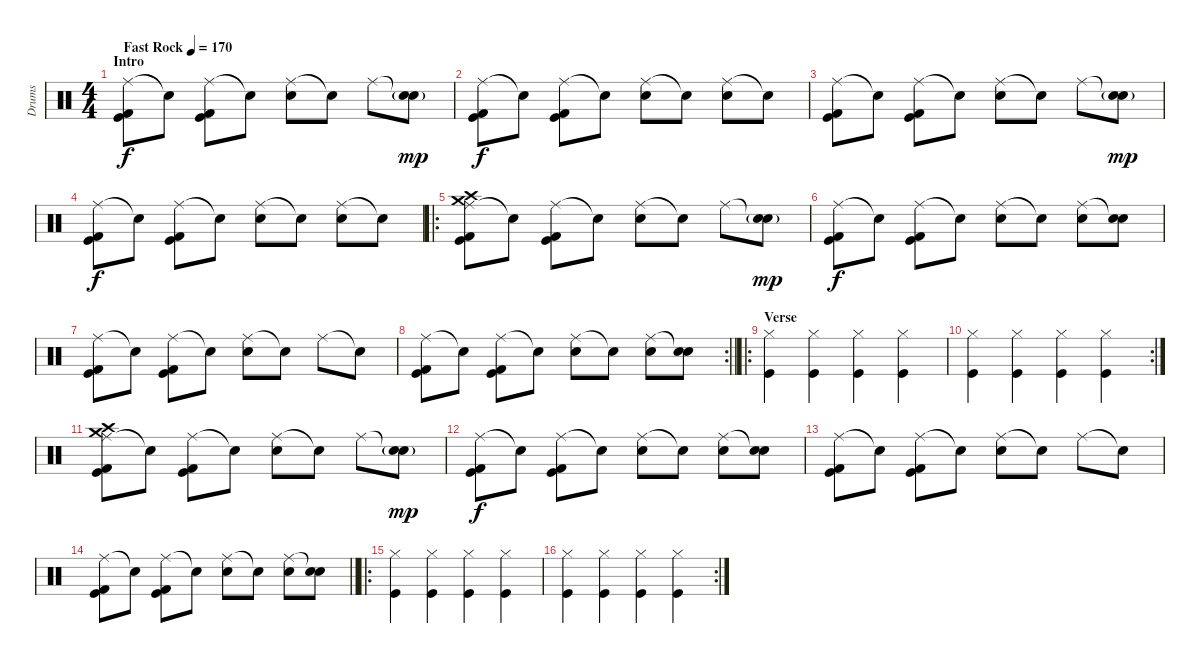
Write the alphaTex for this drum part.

\track ("Drums" "Drums") {instrument percussion}
\staff {score}
\articulation defaults
\ts (4 4)
\section ("" "Intro")
\tempo (170 "Fast Rock")
\clef neutral
\ks c
("Ride (middle)" "Kick (hit)" "Kick (hit) 2").8{dy f} "Snare (hit)"{t}.8 ("Ride (middle)" "Kick (hit)" "Kick (hit) 2").8 "Snare (hit)"{t}.8 ("Ride (middle)" "Electric Snare (hit)").8 "Snare (hit)"{t}.8 "Ride (middle)".8 ("Snare (hit)"{t} "Electric Snare (hit)"{g}).8{dy mp} |
("Ride (middle)" "Kick (hit)" "Kick (hit) 2").8{dy f} "Snare (hit)"{t}.8 ("Ride (middle)" "Kick (hit)" "Kick (hit) 2").8 "Snare (hit)"{t}.8 ("Ride (middle)" "Electric Snare (hit)").8 "Snare (hit)"{t}.8 ("Ride (middle)" "Electric Snare (hit)").8 "Snare (hit)"{t}.8 |
("Ride (middle)" "Kick (hit)" "Kick (hit) 2").8 "Snare (hit)"{t}.8 ("Ride (middle)" "Kick (hit)" "Kick (hit) 2").8 "Snare (hit)"{t}.8 ("Ride (middle)" "Electric Snare (hit)").8 "Snare (hit)"{t}.8 "Ride (middle)".8 ("Snare (hit)"{t} "Electric Snare (hit)"{g}).8{dy mp} |
("Ride (middle)" "Kick (hit)" "Kick (hit) 2").8{dy f} "Snare (hit)"{t}.8 ("Ride (middle)" "Kick (hit)" "Kick (hit) 2").8 "Snare (hit)"{t}.8 ("Ride (middle)" "Electric Snare (hit)").8 "Snare (hit)"{t}.8 ("Ride (middle)" "Electric Snare (hit)").8 "Snare (hit)"{t}.8 |
\ro
("Ride (middle)" "Crash high (hit)" "Crash medium (hit)" "Kick (hit)" "Kick (hit) 2").8 "Snare (hit)"{t}.8 ("Ride (middle)" "Kick (hit)" "Kick (hit) 2").8 "Snare (hit)"{t}.8 ("Ride (middle)" "Electric Snare (hit)").8 "Snare (hit)"{t}.8 "Ride (middle)".8 ("Snare (hit)"{t} "Electric Snare (hit)"{g}).8{dy mp} |
("Ride (middle)" "Kick (hit)" "Kick (hit) 2").8{dy f} "Snare (hit)"{t}.8 ("Ride (middle)" "Kick (hit)" "Kick (hit) 2").8 "Snare (hit)"{t}.8 ("Ride (middle)" "Electric Snare (hit)").8 "Snare (hit)"{t}.8 ("Ride (middle)" "Electric Snare (hit)").8 ("Snare (hit)"{t} "Electric Snare (hit)").8 |
("Ride (middle)" "Kick (hit)" "Kick (hit) 2").8 "Snare (hit)"{t}.8 ("Ride (middle)" "Kick (hit)" "Kick (hit) 2").8 "Snare (hit)"{t}.8 ("Ride (middle)" "Electric Snare (hit)").8 "Snare (hit)"{t}.8 "Ride (middle)".8 "Snare (hit)"{t}.8 |
\rc 2
\barLineRight lightlight
("Ride (middle)" "Kick (hit)" "Kick (hit) 2").8 "Snare (hit)"{t}.8 ("Ride (middle)" "Kick (hit)" "Kick (hit) 2").8 "Snare (hit)"{t}.8 ("Ride (middle)" "Electric Snare (hit)").8 "Snare (hit)"{t}.8 ("Ride (middle)" "Electric Snare (hit)").8 ("Snare (hit)"{t} "Electric Snare (hit)").8 |
\ro
\section ("" "Verse")
("Hi-Hat (closed)" "Kick (hit)").4 ("Hi-Hat (closed)" "Kick (hit)").4 ("Hi-Hat (closed)" "Kick (hit)").4 ("Hi-Hat (closed)" "Kick (hit)").4 |
\rc 2
("Hi-Hat (closed)" "Kick (hit)").4 ("Hi-Hat (closed)" "Kick (hit)").4 ("Hi-Hat (closed)" "Kick (hit)").4 ("Hi-Hat (closed)" "Kick (hit)").4 |
("Ride (middle)" "Crash high (hit)" "Crash medium (hit)" "Kick (hit)" "Kick (hit) 2").8 "Snare (hit)"{t}.8 ("Ride (middle)" "Kick (hit)" "Kick (hit) 2").8 "Snare (hit)"{t}.8 ("Ride (middle)" "Electric Snare (hit)").8 "Snare (hit)"{t}.8 "Ride (middle)".8 ("Snare (hit)"{t} "Electric Snare (hit)"{g}).8{dy mp} |
("Ride (middle)" "Kick (hit)" "Kick (hit) 2").8{dy f} "Snare (hit)"{t}.8 ("Ride (middle)" "Kick (hit)" "Kick (hit) 2").8 "Snare (hit)"{t}.8 ("Ride (middle)" "Electric Snare (hit)").8 "Snare (hit)"{t}.8 ("Ride (middle)" "Electric Snare (hit)").8 ("Snare (hit)"{t} "Electric Snare (hit)").8 |
("Ride (middle)" "Kick (hit)" "Kick (hit) 2").8 "Snare (hit)"{t}.8 ("Ride (middle)" "Kick (hit)" "Kick (hit) 2").8 "Snare (hit)"{t}.8 ("Ride (middle)" "Electric Snare (hit)").8 "Snare (hit)"{t}.8 "Ride (middle)".8 "Snare (hit)"{t}.8 |
\barLineRight lightlight
("Ride (middle)" "Kick (hit)" "Kick (hit) 2").8 "Snare (hit)"{t}.8 ("Ride (middle)" "Kick (hit)" "Kick (hit) 2").8 "Snare (hit)"{t}.8 ("Ride (middle)" "Electric Snare (hit)").8 "Snare (hit)"{t}.8 ("Ride (middle)" "Electric Snare (hit)").8 ("Snare (hit)"{t} "Electric Snare (hit)").8 |
\ro
("Hi-Hat (closed)" "Kick (hit)").4 ("Hi-Hat (closed)" "Kick (hit)").4 ("Hi-Hat (closed)" "Kick (hit)").4 ("Hi-Hat (closed)" "Kick (hit)").4 |
\rc 2
("Hi-Hat (closed)" "Kick (hit)").4 ("Hi-Hat (closed)" "Kick (hit)").4 ("Hi-Hat (closed)" "Kick (hit)").4 ("Hi-Hat (closed)" "Kick (hit)").4
